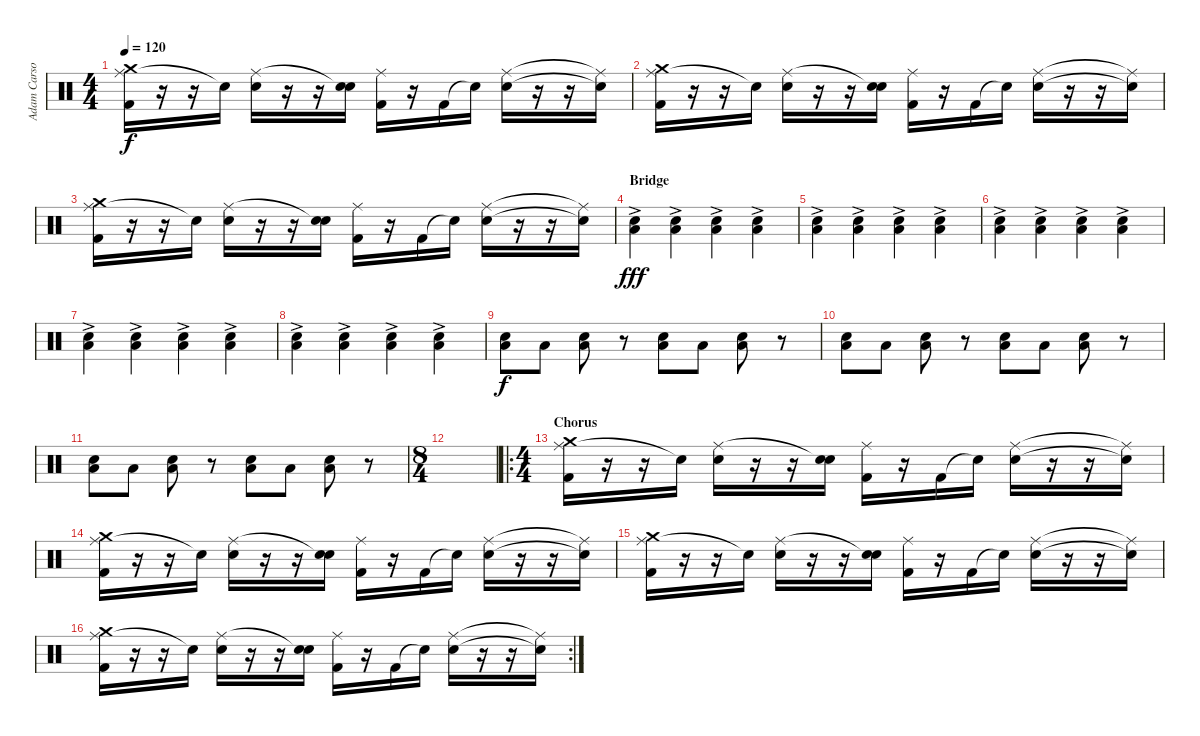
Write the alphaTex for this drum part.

\track ("Adam Carson-Drums" "Adam Carso") {instrument percussion}
\staff {score}
\articulation defaults
\ts (4 4)
\tempo 120
\clef neutral
\ks c
("Ride (middle)" "Crash medium (hit)" "Kick (hit) 2").16{dy f} r.16 r.16 "Snare (hit)"{t}.16 ("Ride (middle)" "Snare (hit) 2").16 r.16 r.16 ("Snare (hit)"{t} "Snare (hit) 2").16 ("Ride (middle)" "Kick (hit) 2").16 r.16 "Kick (hit) 2".16 "Snare (hit)"{t}.16 ("Ride (middle)" "Snare (hit) 2").16 r.16 r.16 ("Ride (middle)"{t} "Snare (hit)"{t}).16 |
("Ride (middle)" "Crash medium (hit)" "Kick (hit) 2").16 r.16 r.16 "Snare (hit)"{t}.16 ("Ride (middle)" "Snare (hit) 2").16 r.16 r.16 ("Snare (hit)"{t} "Snare (hit) 2").16 ("Ride (middle)" "Kick (hit) 2").16 r.16 "Kick (hit) 2".16 "Snare (hit)"{t}.16 ("Ride (middle)" "Snare (hit) 2").16 r.16 r.16 ("Ride (middle)"{t} "Snare (hit)"{t}).16 |
("Ride (middle)" "Crash medium (hit)" "Kick (hit) 2").16 r.16 r.16 "Snare (hit)"{t}.16 ("Ride (middle)" "Snare (hit) 2").16 r.16 r.16 ("Snare (hit)"{t} "Snare (hit) 2").16 ("Ride (middle)" "Kick (hit) 2").16 r.16 "Kick (hit) 2".16 "Snare (hit)"{t}.16 ("Ride (middle)" "Snare (hit) 2").16 r.16 r.16 ("Ride (middle)"{t} "Snare (hit)"{t}).16 |
\section ("" "Bridge")
("Low Floor Tom (hit)" "Hand Clap (hit)"{ac}).4{dy fff} ("Low Floor Tom (hit)" "Hand Clap (hit)"{ac}).4 ("Low Floor Tom (hit)" "Hand Clap (hit)"{ac}).4 ("Low Floor Tom (hit)" "Hand Clap (hit)"{ac}).4 |
("Low Floor Tom (hit)" "Hand Clap (hit)"{ac}).4 ("Low Floor Tom (hit)" "Hand Clap (hit)"{ac}).4 ("Low Floor Tom (hit)" "Hand Clap (hit)"{ac}).4 ("Low Floor Tom (hit)" "Hand Clap (hit)"{ac}).4 |
("Low Floor Tom (hit)" "Hand Clap (hit)"{ac}).4 ("Low Floor Tom (hit)" "Hand Clap (hit)"{ac}).4 ("Low Floor Tom (hit)" "Hand Clap (hit)"{ac}).4 ("Low Floor Tom (hit)" "Hand Clap (hit)"{ac}).4 |
("Low Floor Tom (hit)" "Hand Clap (hit)"{ac}).4 ("Low Floor Tom (hit)" "Hand Clap (hit)"{ac}).4 ("Low Floor Tom (hit)" "Hand Clap (hit)"{ac}).4 ("Low Floor Tom (hit)" "Hand Clap (hit)"{ac}).4 |
("Low Floor Tom (hit)" "Hand Clap (hit)"{ac}).4 ("Low Floor Tom (hit)" "Hand Clap (hit)"{ac}).4 ("Low Floor Tom (hit)" "Hand Clap (hit)"{ac}).4 ("Low Floor Tom (hit)" "Hand Clap (hit)"{ac}).4 |
("Low Floor Tom (hit)" "Hand Clap (hit)").8{dy f} "Low Tom (hit)".8 ("Low Floor Tom (hit)" "Hand Clap (hit)").8 r.8 ("Low Floor Tom (hit)" "Hand Clap (hit)").8 "Low Tom (hit)".8 ("Low Floor Tom (hit)" "Hand Clap (hit)").8 r.8 |
("Low Floor Tom (hit)" "Hand Clap (hit)").8 "Low Tom (hit)".8 ("Low Floor Tom (hit)" "Hand Clap (hit)").8 r.8 ("Low Floor Tom (hit)" "Hand Clap (hit)").8 "Low Tom (hit)".8 ("Low Floor Tom (hit)" "Hand Clap (hit)").8 r.8 |
("Low Floor Tom (hit)" "Hand Clap (hit)").8 "Low Tom (hit)".8 ("Low Floor Tom (hit)" "Hand Clap (hit)").8 r.8 ("Low Floor Tom (hit)" "Hand Clap (hit)").8 "Low Tom (hit)".8 ("Low Floor Tom (hit)" "Hand Clap (hit)").8 r.8 |
\ts (8 4)
|
\ro
\ts (4 4)
\section ("" "Chorus")
("Ride (middle)" "Crash medium (hit)" "Kick (hit) 2").16 r.16 r.16 "Snare (hit)"{t}.16 ("Ride (middle)" "Snare (hit) 2").16 r.16 r.16 ("Snare (hit)"{t} "Snare (hit) 2").16 ("Ride (middle)" "Kick (hit) 2").16 r.16 "Kick (hit) 2".16 "Snare (hit)"{t}.16 ("Ride (middle)" "Snare (hit) 2").16 r.16 r.16 ("Ride (middle)"{t} "Snare (hit)"{t}).16 |
("Ride (middle)" "Crash medium (hit)" "Kick (hit) 2").16 r.16 r.16 "Snare (hit)"{t}.16 ("Ride (middle)" "Snare (hit) 2").16 r.16 r.16 ("Snare (hit)"{t} "Snare (hit) 2").16 ("Ride (middle)" "Kick (hit) 2").16 r.16 "Kick (hit) 2".16 "Snare (hit)"{t}.16 ("Ride (middle)" "Snare (hit) 2").16 r.16 r.16 ("Ride (middle)"{t} "Snare (hit)"{t}).16 |
("Ride (middle)" "Crash medium (hit)" "Kick (hit) 2").16 r.16 r.16 "Snare (hit)"{t}.16 ("Ride (middle)" "Snare (hit) 2").16 r.16 r.16 ("Snare (hit)"{t} "Snare (hit) 2").16 ("Ride (middle)" "Kick (hit) 2").16 r.16 "Kick (hit) 2".16 "Snare (hit)"{t}.16 ("Ride (middle)" "Snare (hit) 2").16 r.16 r.16 ("Ride (middle)"{t} "Snare (hit)"{t}).16 |
\rc 2
("Ride (middle)" "Crash medium (hit)" "Kick (hit) 2").16 r.16 r.16 "Snare (hit)"{t}.16 ("Ride (middle)" "Snare (hit) 2").16 r.16 r.16 ("Snare (hit)"{t} "Snare (hit) 2").16 ("Ride (middle)" "Kick (hit) 2").16 r.16 "Kick (hit) 2".16 "Snare (hit)"{t}.16 ("Ride (middle)" "Snare (hit) 2").16 r.16 r.16 ("Ride (middle)"{t} "Snare (hit)"{t}).16
